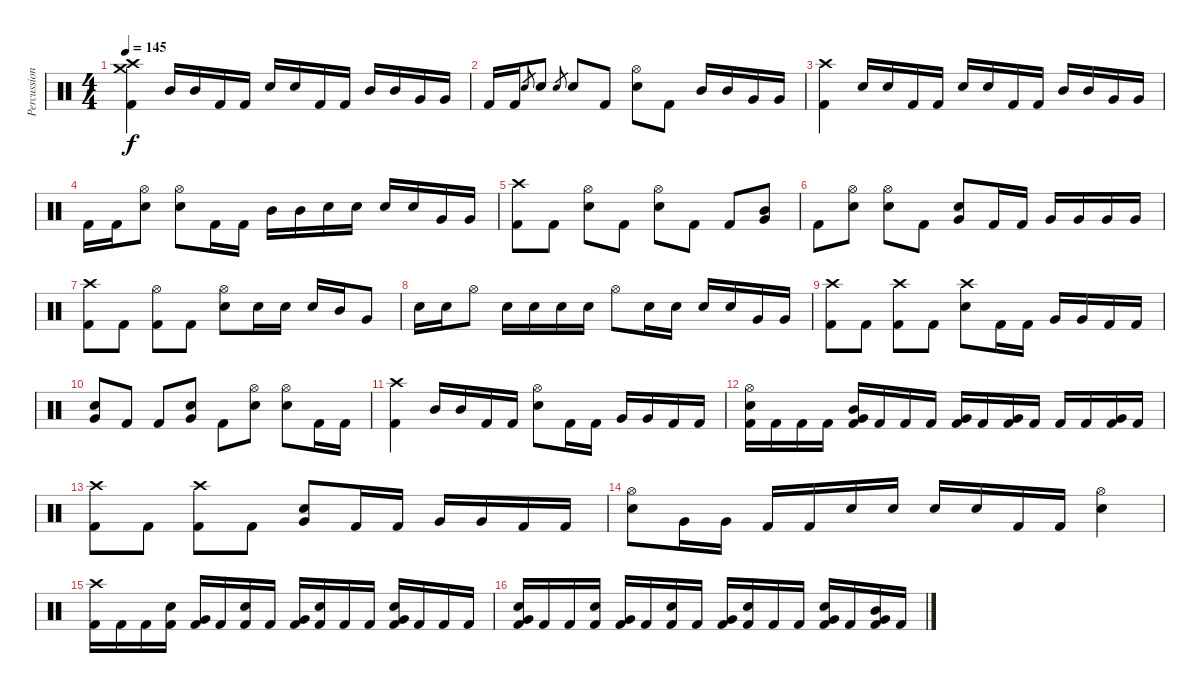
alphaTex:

\track ("Percussion" "Percussion") {instrument percussion}
\staff {score}
\articulation defaults
\ts (4 4)
\tempo 145
\clef neutral
\ks c
("Crash high (hit)" "Crash medium (hit)" "Kick (hit) 2").4{dy f} "Mid Tom (hit)".16 "Mid Tom (hit)".16 "Kick (hit) 2".16 "Kick (hit) 2".16 "Snare (hit) 2".16 "Snare (hit) 2".16 "Kick (hit) 2".16 "Kick (hit) 2".16 "Mid Tom (hit)".16 "Mid Tom (hit)".16 "Very Low Tom (hit)".16 "Very Low Tom (hit)".16 |
"Kick (hit) 2".16 "Kick (hit) 2".16 "Snare (hit) 2".8{gr} "Snare (hit) 2".8 "Snare (hit) 2".8{gr} "Snare (hit) 2".8 "Kick (hit) 2".8 ("Hi-Hat (open)" "Snare (hit) 2").8 "Kick (hit) 2".8 "Mid Tom (hit)".16 "Mid Tom (hit)".16 "Very Low Tom (hit)".16 "Very Low Tom (hit)".16 |
("Crash high (hit)" "Kick (hit) 2").4 "Snare (hit) 2".16 "Snare (hit) 2".16 "Kick (hit) 2".16 "Kick (hit) 2".16 "Snare (hit) 2".16 "Snare (hit) 2".16 "Kick (hit) 2".16 "Kick (hit) 2".16 "Mid Tom (hit)".16 "Mid Tom (hit)".16 "Very Low Tom (hit)".16 "Very Low Tom (hit)".16 |
"Kick (hit) 2".16 "Kick (hit) 2".16 ("Hi-Hat (open)" "Snare (hit) 2").8 ("Hi-Hat (open)" "Snare (hit) 2").8 "Kick (hit) 2".16 "Kick (hit) 2".16 "Mid Tom (hit)".16 "Mid Tom (hit)".16 "Snare (hit) 2".16 "Snare (hit) 2".16 "Snare (hit) 2".16 "Snare (hit) 2".16 "Very Low Tom (hit)".16 "Very Low Tom (hit)".16 |
("Crash high (hit)" "Kick (hit) 2").8 "Kick (hit) 2".8 ("Hi-Hat (open)" "Snare (hit) 2").8 "Kick (hit) 2".8 ("Hi-Hat (open)" "Snare (hit) 2").8 "Kick (hit) 2".8 "Kick (hit) 2".8 ("Mid Tom (hit)" "Very Low Tom (hit)").8 |
"Kick (hit) 2".8 ("Hi-Hat (open)" "Snare (hit) 2").8 ("Hi-Hat (open)" "Snare (hit) 2").8 "Kick (hit) 2".8 ("Snare (hit) 2" "Very Low Tom (hit)").8 "Kick (hit) 2".16 "Kick (hit) 2".16 "Very Low Tom (hit)".16 "Very Low Tom (hit)".16 "Very Low Tom (hit)".16 "Very Low Tom (hit)".16 |
("Crash high (hit)" "Kick (hit) 2").8 "Kick (hit) 2".8 ("Hi-Hat (open)" "Kick (hit) 2").8 "Kick (hit) 2".8 ("Hi-Hat (open)" "Snare (hit) 2").8 "Snare (hit) 2".16 "Snare (hit) 2".16 "Snare (hit) 2".16 "Mid Tom (hit)".16 "Very Low Tom (hit)".8 |
"Snare (hit) 2".16 "Snare (hit) 2".16 "Hi-Hat (open)".8 "Snare (hit) 2".16 "Snare (hit) 2".16 "Snare (hit) 2".16 "Snare (hit) 2".16 "Hi-Hat (open)".8 "Snare (hit) 2".16 "Snare (hit) 2".16 "Snare (hit) 2".16 "Snare (hit) 2".16 "Very Low Tom (hit)".16 "Very Low Tom (hit)".16 |
("Crash high (hit)" "Kick (hit) 2").8 "Kick (hit) 2".8 ("Crash high (hit)" "Kick (hit) 2").8 "Kick (hit) 2".8 ("Crash high (hit)" "Snare (hit) 2").8 "Kick (hit) 2".16 "Kick (hit) 2".16 "Very Low Tom (hit)".16 "Very Low Tom (hit)".16 "Kick (hit) 2".16 "Kick (hit) 2".16 |
("Snare (hit) 2" "Very Low Tom (hit)").8 "Kick (hit) 2".8 "Kick (hit) 2".8 ("Snare (hit) 2" "Very Low Tom (hit)").8 "Kick (hit) 2".8 ("Hi-Hat (open)" "Snare (hit) 2").8 ("Hi-Hat (open)" "Snare (hit) 2").8 "Kick (hit) 2".16 "Kick (hit) 2".16 |
("Crash high (hit)" "Kick (hit) 2").4 "Mid Tom (hit)".16 "Mid Tom (hit)".16 "Kick (hit) 2".16 "Kick (hit) 2".16 ("Hi-Hat (open)" "Snare (hit) 2").8 "Kick (hit) 2".16 "Kick (hit) 2".16 "Very Low Tom (hit)".16 "Very Low Tom (hit)".16 "Kick (hit) 2".16 "Kick (hit) 2".16 |
("Hi-Hat (open)" "Snare (hit) 2" "Kick (hit) 2").16 "Kick (hit) 2".16 "Kick (hit) 2".16 "Kick (hit) 2".16 ("Mid Tom (hit)" "Very Low Tom (hit)" "Kick (hit) 2").16 "Kick (hit) 2".16 "Kick (hit) 2".16 "Kick (hit) 2".16 ("Very Low Tom (hit)" "Kick (hit) 2").16 "Kick (hit) 2".16 ("Very Low Tom (hit)" "Kick (hit) 2").16 "Kick (hit) 2".16 "Kick (hit) 2".16 "Kick (hit) 2".16 ("Very Low Tom (hit)" "Kick (hit) 2").16 "Kick (hit) 2".16 |
("Crash high (hit)" "Kick (hit) 2").8 "Kick (hit) 2".8 ("Crash high (hit)" "Kick (hit) 2").8 "Kick (hit) 2".8 ("Snare (hit) 2" "Very Low Tom (hit)").8 "Kick (hit) 2".16 "Kick (hit) 2".16 "Very Low Tom (hit)".16 "Very Low Tom (hit)".16 "Kick (hit) 2".16 "Kick (hit) 2".16 |
("Hi-Hat (open)" "Snare (hit) 2").8 "Very Low Tom (hit)".16 "Very Low Tom (hit)".16 "Kick (hit) 2".16 "Kick (hit) 2".16 "Snare (hit) 2".16 "Snare (hit) 2".16 "Snare (hit) 2".16 "Snare (hit) 2".16 "Kick (hit) 2".16 "Kick (hit) 2".16 ("Hi-Hat (open)" "Snare (hit) 2").4 |
("Crash high (hit)" "Kick (hit) 2").16 "Kick (hit) 2".16 "Kick (hit) 2".16 ("Snare (hit) 2" "Kick (hit) 2").16 ("Very Low Tom (hit)" "Kick (hit) 2").16 "Kick (hit) 2".16 ("Snare (hit) 2" "Kick (hit) 2").16 "Kick (hit) 2".16 ("Very Low Tom (hit)" "Kick (hit) 2").16 ("Snare (hit) 2" "Kick (hit) 2").16 "Kick (hit) 2".16 "Kick (hit) 2".16 ("Snare (hit) 2" "Very Low Tom (hit)" "Kick (hit) 2").16 "Kick (hit) 2".16 "Kick (hit) 2".16 "Kick (hit) 2".16 |
("Snare (hit) 2" "Very Low Tom (hit)" "Kick (hit) 2").16 "Kick (hit) 2".16 "Kick (hit) 2".16 ("Snare (hit) 2" "Kick (hit) 2").16 ("Very Low Tom (hit)" "Kick (hit) 2").16 "Kick (hit) 2".16 ("Snare (hit) 2" "Kick (hit) 2").16 "Kick (hit) 2".16 ("Very Low Tom (hit)" "Kick (hit) 2").16 ("Snare (hit) 2" "Kick (hit) 2").16 "Kick (hit) 2".16 "Kick (hit) 2".16 ("Snare (hit) 2" "Very Low Tom (hit)" "Kick (hit) 2").16 "Kick (hit) 2".16 ("Mid Tom (hit)" "Very Low Tom (hit)" "Kick (hit) 2").16 "Kick (hit) 2".16
